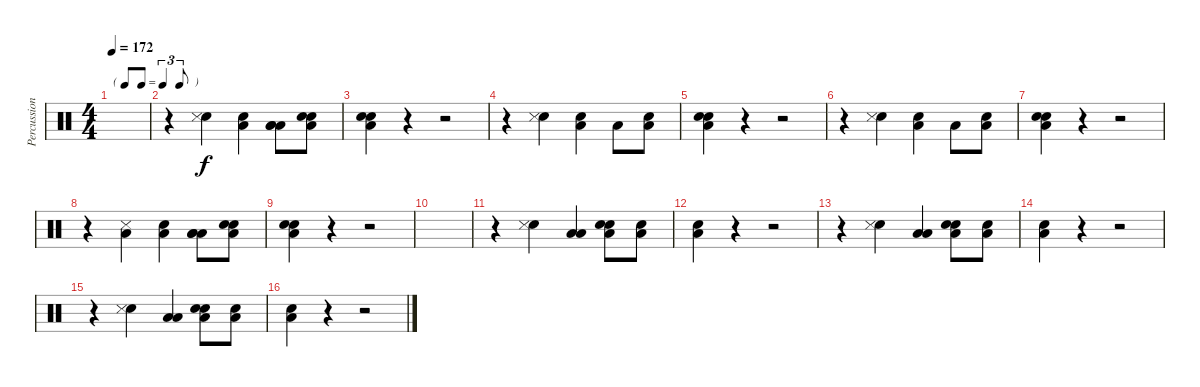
\track ("Percussions" "Percussion") {instrument percussion}
\staff {score}
\articulation defaults
\ts (4 4)
\tf triplet8th
\tempo 172
\clef neutral
\ks c
|
r.4 ("Snare (hit) 2" "Snare (side stick) 3").4 ("Low Tom (hit)" "Snare (hit) 2").4 ("Low Tom (hit)" "Low Floor Tom (hit)" "Low Floor Tom (hit)").8 ("Low Floor Tom (hit)" "Snare (hit) 2" "Snare (hit) 2").8 |
("Low Floor Tom (hit)" "Snare (hit) 2" "Electric Snare (hit)").4 r.4 r.2 |
r.4 ("Snare (hit) 2" "Snare (side stick) 3").4 ("Low Tom (hit)" "Snare (hit) 2").4 "Low Tom (hit)".8 ("Low Floor Tom (hit)" "Snare (hit) 2").8 |
("Low Floor Tom (hit)" "Snare (hit) 2" "Electric Snare (hit)").4 r.4 r.2 |
r.4 ("Snare (hit) 2" "Snare (side stick) 3").4 ("Low Tom (hit)" "Snare (hit) 2").4 "Low Tom (hit)".8 ("Low Floor Tom (hit)" "Snare (hit) 2").8 |
("Low Floor Tom (hit)" "Snare (hit) 2" "Electric Snare (hit)").4 r.4 r.2 |
r.4 ("Low Floor Tom (hit)" "Snare (side stick) 3").4 ("Low Tom (hit)" "Snare (hit) 2").4 ("Low Tom (hit)" "Low Floor Tom (hit)" "Low Floor Tom (hit)").8 ("Low Floor Tom (hit)" "Snare (hit) 2" "Snare (hit) 2").8 |
("Low Floor Tom (hit)" "Snare (hit) 2" "Electric Snare (hit)").4 r.4 r.2 |
|
r.4 ("Snare (hit) 2" "Snare (side stick) 3").4 ("Low Floor Tom (hit)" "Low Tom (hit)").4 ("Low Tom (hit)" "Snare (hit) 2" "Snare (hit) 2").8 ("Snare (hit) 2" "Low Tom (hit)").8 |
("Low Floor Tom (hit)" "Snare (hit) 2").4 r.4 r.2 |
r.4 ("Snare (hit) 2" "Snare (side stick) 3").4 ("Low Floor Tom (hit)" "Low Tom (hit)").4 ("Low Tom (hit)" "Snare (hit) 2" "Snare (hit) 2").8 ("Snare (hit) 2" "Low Tom (hit)").8 |
("Low Floor Tom (hit)" "Snare (hit) 2").4 r.4 r.2 |
r.4 ("Snare (hit) 2" "Snare (side stick) 3").4 ("Low Floor Tom (hit)" "Low Tom (hit)").4 ("Low Tom (hit)" "Snare (hit) 2" "Snare (hit) 2").8 ("Snare (hit) 2" "Low Tom (hit)").8 |
("Low Floor Tom (hit)" "Snare (hit) 2").4 r.4 r.2
